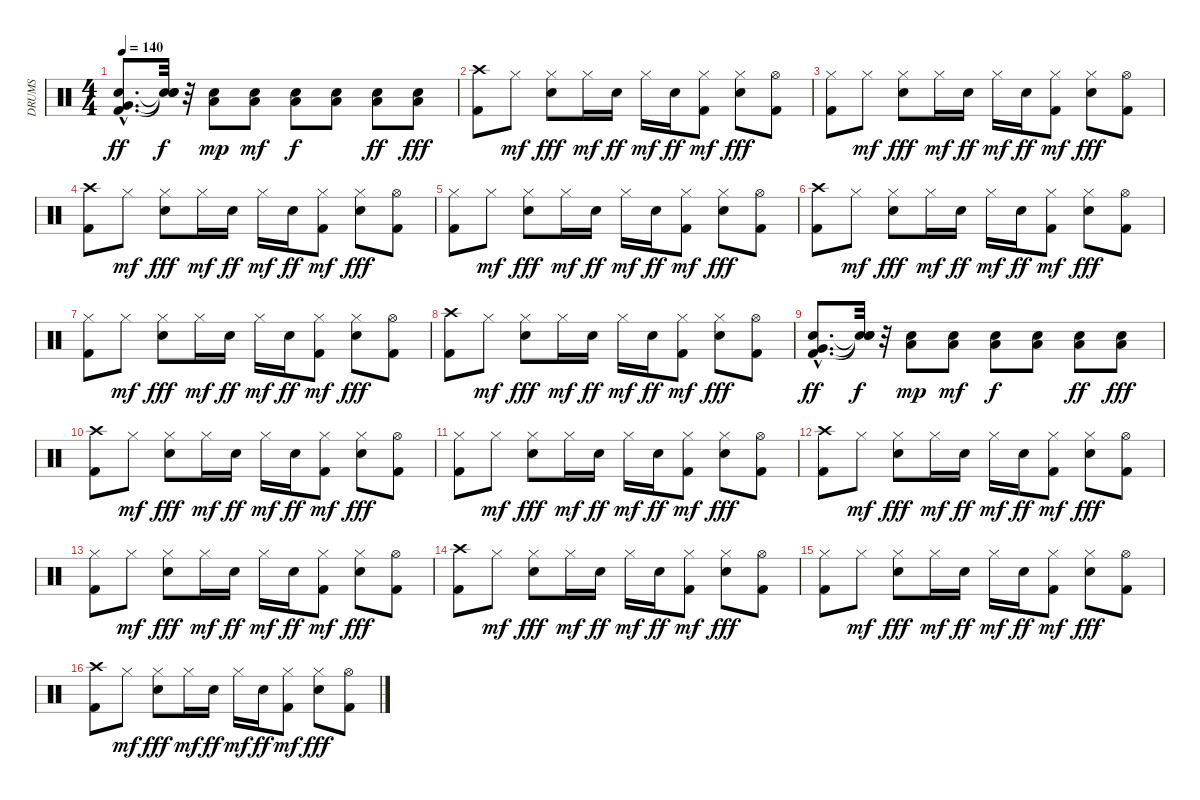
\track ("DRUMS" "DRUMS") {instrument percussion}
\staff {score}
\articulation defaults
\ts (4 4)
\tempo 140
\clef neutral
\ks c
("Kick (hit) 2"{hac} "Electric Snare (hit)"{hac} "Very Low Tom (hit)"{hac}).8{d dy ff} ("Snare (hit)"{t} "Snare (hit)"{t} "Snare (hit)"{t}).32{dy f} r.32 ("Low Tom (hit)" "Electric Snare (hit)").8{dy mp} ("Low Tom (hit)" "Electric Snare (hit)").8{dy mf} ("Low Tom (hit)" "Electric Snare (hit)").8{dy f} ("Low Tom (hit)" "Electric Snare (hit)").8 ("Low Tom (hit)" "Electric Snare (hit)").8{dy ff} ("Low Tom (hit)" "Electric Snare (hit)").8{dy fff} |
("Kick (hit) 2" "Crash high (hit)").8 "Hi-Hat (closed)".8{dy mf} ("Hi-Hat (closed)" "Electric Snare (hit)").8{dy fff} "Hi-Hat (closed)".16{dy mf} "Electric Snare (hit)".16{dy ff} "Hi-Hat (closed)".16{dy mf} "Electric Snare (hit)".16{dy ff} ("Kick (hit) 2" "Hi-Hat (closed)").8{dy mf} ("Hi-Hat (closed)" "Electric Snare (hit)").8{dy fff} ("Kick (hit) 2" "Hi-Hat (open)").8 |
("Kick (hit) 2" "Hi-Hat (closed)").8 "Hi-Hat (closed)".8{dy mf} ("Hi-Hat (closed)" "Electric Snare (hit)").8{dy fff} "Hi-Hat (closed)".16{dy mf} "Electric Snare (hit)".16{dy ff} "Hi-Hat (closed)".16{dy mf} "Electric Snare (hit)".16{dy ff} ("Kick (hit) 2" "Hi-Hat (closed)").8{dy mf} ("Hi-Hat (closed)" "Electric Snare (hit)").8{dy fff} ("Kick (hit) 2" "Hi-Hat (open)").8 |
("Kick (hit) 2" "Crash high (hit)").8 "Hi-Hat (closed)".8{dy mf} ("Hi-Hat (closed)" "Electric Snare (hit)").8{dy fff} "Hi-Hat (closed)".16{dy mf} "Electric Snare (hit)".16{dy ff} "Hi-Hat (closed)".16{dy mf} "Electric Snare (hit)".16{dy ff} ("Kick (hit) 2" "Hi-Hat (closed)").8{dy mf} ("Hi-Hat (closed)" "Electric Snare (hit)").8{dy fff} ("Kick (hit) 2" "Hi-Hat (open)").8 |
("Kick (hit) 2" "Hi-Hat (closed)").8 "Hi-Hat (closed)".8{dy mf} ("Hi-Hat (closed)" "Electric Snare (hit)").8{dy fff} "Hi-Hat (closed)".16{dy mf} "Electric Snare (hit)".16{dy ff} "Hi-Hat (closed)".16{dy mf} "Electric Snare (hit)".16{dy ff} ("Kick (hit) 2" "Hi-Hat (closed)").8{dy mf} ("Hi-Hat (closed)" "Electric Snare (hit)").8{dy fff} ("Kick (hit) 2" "Hi-Hat (open)").8 |
("Kick (hit) 2" "Crash high (hit)").8 "Hi-Hat (closed)".8{dy mf} ("Hi-Hat (closed)" "Electric Snare (hit)").8{dy fff} "Hi-Hat (closed)".16{dy mf} "Electric Snare (hit)".16{dy ff} "Hi-Hat (closed)".16{dy mf} "Electric Snare (hit)".16{dy ff} ("Kick (hit) 2" "Hi-Hat (closed)").8{dy mf} ("Hi-Hat (closed)" "Electric Snare (hit)").8{dy fff} ("Kick (hit) 2" "Hi-Hat (open)").8 |
("Kick (hit) 2" "Hi-Hat (closed)").8 "Hi-Hat (closed)".8{dy mf} ("Hi-Hat (closed)" "Electric Snare (hit)").8{dy fff} "Hi-Hat (closed)".16{dy mf} "Electric Snare (hit)".16{dy ff} "Hi-Hat (closed)".16{dy mf} "Electric Snare (hit)".16{dy ff} ("Kick (hit) 2" "Hi-Hat (closed)").8{dy mf} ("Hi-Hat (closed)" "Electric Snare (hit)").8{dy fff} ("Kick (hit) 2" "Hi-Hat (open)").8 |
("Kick (hit) 2" "Crash high (hit)").8 "Hi-Hat (closed)".8{dy mf} ("Hi-Hat (closed)" "Electric Snare (hit)").8{dy fff} "Hi-Hat (closed)".16{dy mf} "Electric Snare (hit)".16{dy ff} "Hi-Hat (closed)".16{dy mf} "Electric Snare (hit)".16{dy ff} ("Kick (hit) 2" "Hi-Hat (closed)").8{dy mf} ("Hi-Hat (closed)" "Electric Snare (hit)").8{dy fff} ("Kick (hit) 2" "Hi-Hat (open)").8 |
("Kick (hit) 2"{hac} "Electric Snare (hit)"{hac} "Very Low Tom (hit)"{hac}).8{d dy ff} ("Snare (hit)"{t} "Snare (hit)"{t} "Snare (hit)"{t}).32{dy f} r.32 ("Low Tom (hit)" "Electric Snare (hit)").8{dy mp} ("Low Tom (hit)" "Electric Snare (hit)").8{dy mf} ("Low Tom (hit)" "Electric Snare (hit)").8{dy f} ("Low Tom (hit)" "Electric Snare (hit)").8 ("Low Tom (hit)" "Electric Snare (hit)").8{dy ff} ("Low Tom (hit)" "Electric Snare (hit)").8{dy fff} |
("Kick (hit) 2" "Crash high (hit)").8 "Hi-Hat (closed)".8{dy mf} ("Hi-Hat (closed)" "Electric Snare (hit)").8{dy fff} "Hi-Hat (closed)".16{dy mf} "Electric Snare (hit)".16{dy ff} "Hi-Hat (closed)".16{dy mf} "Electric Snare (hit)".16{dy ff} ("Kick (hit) 2" "Hi-Hat (closed)").8{dy mf} ("Hi-Hat (closed)" "Electric Snare (hit)").8{dy fff} ("Kick (hit) 2" "Hi-Hat (open)").8 |
("Kick (hit) 2" "Hi-Hat (closed)").8 "Hi-Hat (closed)".8{dy mf} ("Hi-Hat (closed)" "Electric Snare (hit)").8{dy fff} "Hi-Hat (closed)".16{dy mf} "Electric Snare (hit)".16{dy ff} "Hi-Hat (closed)".16{dy mf} "Electric Snare (hit)".16{dy ff} ("Kick (hit) 2" "Hi-Hat (closed)").8{dy mf} ("Hi-Hat (closed)" "Electric Snare (hit)").8{dy fff} ("Kick (hit) 2" "Hi-Hat (open)").8 |
("Kick (hit) 2" "Crash high (hit)").8 "Hi-Hat (closed)".8{dy mf} ("Hi-Hat (closed)" "Electric Snare (hit)").8{dy fff} "Hi-Hat (closed)".16{dy mf} "Electric Snare (hit)".16{dy ff} "Hi-Hat (closed)".16{dy mf} "Electric Snare (hit)".16{dy ff} ("Kick (hit) 2" "Hi-Hat (closed)").8{dy mf} ("Hi-Hat (closed)" "Electric Snare (hit)").8{dy fff} ("Kick (hit) 2" "Hi-Hat (open)").8 |
("Kick (hit) 2" "Hi-Hat (closed)").8 "Hi-Hat (closed)".8{dy mf} ("Hi-Hat (closed)" "Electric Snare (hit)").8{dy fff} "Hi-Hat (closed)".16{dy mf} "Electric Snare (hit)".16{dy ff} "Hi-Hat (closed)".16{dy mf} "Electric Snare (hit)".16{dy ff} ("Kick (hit) 2" "Hi-Hat (closed)").8{dy mf} ("Hi-Hat (closed)" "Electric Snare (hit)").8{dy fff} ("Kick (hit) 2" "Hi-Hat (open)").8 |
("Kick (hit) 2" "Crash high (hit)").8 "Hi-Hat (closed)".8{dy mf} ("Hi-Hat (closed)" "Electric Snare (hit)").8{dy fff} "Hi-Hat (closed)".16{dy mf} "Electric Snare (hit)".16{dy ff} "Hi-Hat (closed)".16{dy mf} "Electric Snare (hit)".16{dy ff} ("Kick (hit) 2" "Hi-Hat (closed)").8{dy mf} ("Hi-Hat (closed)" "Electric Snare (hit)").8{dy fff} ("Kick (hit) 2" "Hi-Hat (open)").8 |
("Kick (hit) 2" "Hi-Hat (closed)").8 "Hi-Hat (closed)".8{dy mf} ("Hi-Hat (closed)" "Electric Snare (hit)").8{dy fff} "Hi-Hat (closed)".16{dy mf} "Electric Snare (hit)".16{dy ff} "Hi-Hat (closed)".16{dy mf} "Electric Snare (hit)".16{dy ff} ("Kick (hit) 2" "Hi-Hat (closed)").8{dy mf} ("Hi-Hat (closed)" "Electric Snare (hit)").8{dy fff} ("Kick (hit) 2" "Hi-Hat (open)").8 |
("Kick (hit) 2" "Crash high (hit)").8 "Hi-Hat (closed)".8{dy mf} ("Hi-Hat (closed)" "Electric Snare (hit)").8{dy fff} "Hi-Hat (closed)".16{dy mf} "Electric Snare (hit)".16{dy ff} "Hi-Hat (closed)".16{dy mf} "Electric Snare (hit)".16{dy ff} ("Kick (hit) 2" "Hi-Hat (closed)").8{dy mf} ("Hi-Hat (closed)" "Electric Snare (hit)").8{dy fff} ("Kick (hit) 2" "Hi-Hat (open)").8
